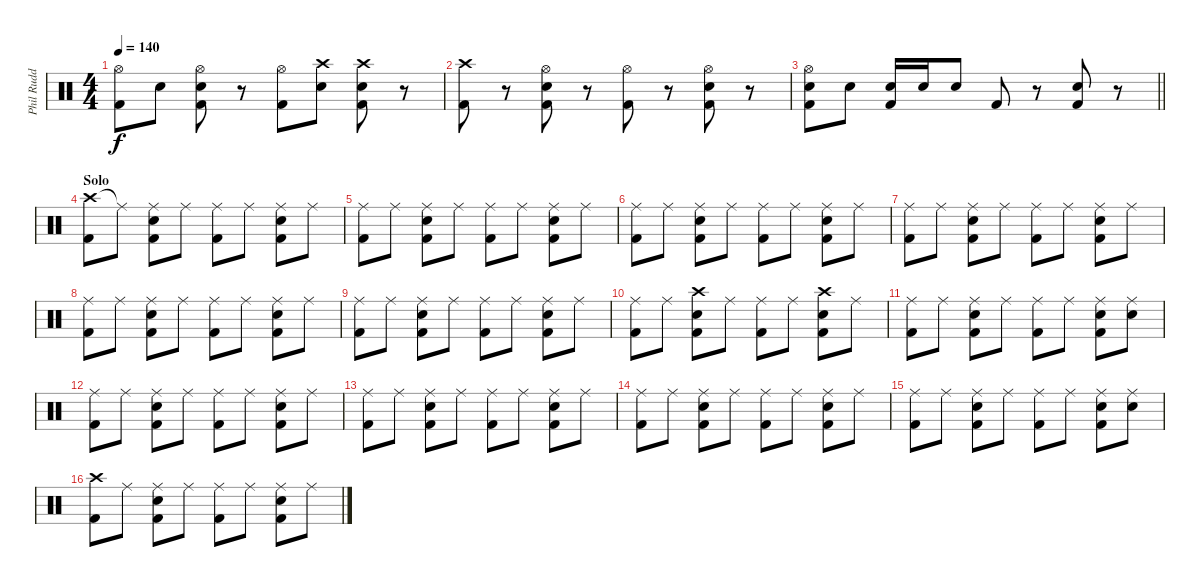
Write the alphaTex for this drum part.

\track ("Phil Rudd" "Phil Rudd") {instrument percussion}
\staff {score}
\articulation defaults
\ts (4 4)
\tempo 140
\clef neutral
\ks c
("Hi-Hat (open)" "Kick (hit) 2").8{dy f} "Electric Snare (hit)".8 ("Hi-Hat (open)" "Electric Snare (hit)" "Kick (hit) 2").8 r.8 ("Hi-Hat (open)" "Kick (hit) 2").8 ("Crash high (hit)" "Electric Snare (hit)").8 ("Crash high (hit)" "Electric Snare (hit)" "Kick (hit) 2").8 r.8 |
("Crash high (hit)" "Kick (hit) 2").8 r.8 ("Hi-Hat (open)" "Electric Snare (hit)" "Kick (hit) 2").8 r.8 ("Hi-Hat (open)" "Kick (hit) 2").8 r.8 ("Hi-Hat (open)" "Electric Snare (hit)" "Kick (hit) 2").8 r.8 |
\barLineRight lightlight
("Hi-Hat (open)" "Electric Snare (hit)" "Kick (hit) 2").8 "Electric Snare (hit)".8 ("Electric Snare (hit)" "Kick (hit) 2").16 "Electric Snare (hit)".16 "Electric Snare (hit)".8 "Kick (hit) 2".8 r.8 ("Electric Snare (hit)" "Kick (hit) 2").8 r.8 |
\section ("" "Solo")
("Crash high (hit)" "Kick (hit) 2").8 "Ride (middle)"{t}.8 ("Ride (middle)" "Electric Snare (hit)" "Kick (hit) 2").8 "Ride (middle)".8 ("Ride (middle)" "Kick (hit) 2").8 "Ride (middle)".8 ("Ride (middle)" "Electric Snare (hit)" "Kick (hit) 2").8 "Ride (middle)".8 |
("Ride (middle)" "Kick (hit) 2").8 "Ride (middle)".8 ("Ride (middle)" "Electric Snare (hit)" "Kick (hit) 2").8 "Ride (middle)".8 ("Ride (middle)" "Kick (hit) 2").8 "Ride (middle)".8 ("Ride (middle)" "Electric Snare (hit)" "Kick (hit) 2").8 "Ride (middle)".8 |
("Ride (middle)" "Kick (hit) 2").8 "Ride (middle)".8 ("Ride (middle)" "Electric Snare (hit)" "Kick (hit) 2").8 "Ride (middle)".8 ("Ride (middle)" "Kick (hit) 2").8 "Ride (middle)".8 ("Ride (middle)" "Electric Snare (hit)" "Kick (hit) 2").8 "Ride (middle)".8 |
("Ride (middle)" "Kick (hit) 2").8 "Ride (middle)".8 ("Ride (middle)" "Electric Snare (hit)" "Kick (hit) 2").8 "Ride (middle)".8 ("Ride (middle)" "Kick (hit) 2").8 "Ride (middle)".8 ("Ride (middle)" "Electric Snare (hit)" "Kick (hit) 2").8 "Ride (middle)".8 |
("Ride (middle)" "Kick (hit) 2").8 "Ride (middle)".8 ("Ride (middle)" "Electric Snare (hit)" "Kick (hit) 2").8 "Ride (middle)".8 ("Ride (middle)" "Kick (hit) 2").8 "Ride (middle)".8 ("Ride (middle)" "Electric Snare (hit)" "Kick (hit) 2").8 "Ride (middle)".8 |
("Ride (middle)" "Kick (hit) 2").8 "Ride (middle)".8 ("Ride (middle)" "Electric Snare (hit)" "Kick (hit) 2").8 "Ride (middle)".8 ("Ride (middle)" "Kick (hit) 2").8 "Ride (middle)".8 ("Ride (middle)" "Electric Snare (hit)" "Kick (hit) 2").8 "Ride (middle)".8 |
("Ride (middle)" "Kick (hit) 2").8 "Ride (middle)".8 ("Crash high (hit)" "Electric Snare (hit)" "Kick (hit) 2").8 "Ride (middle)".8 ("Ride (middle)" "Kick (hit) 2").8 "Ride (middle)".8 ("Crash high (hit)" "Electric Snare (hit)" "Kick (hit) 2").8 "Ride (middle)".8 |
("Ride (middle)" "Kick (hit) 2").8 "Ride (middle)".8 ("Ride (middle)" "Electric Snare (hit)" "Kick (hit) 2").8 "Ride (middle)".8 ("Ride (middle)" "Kick (hit) 2").8 "Ride (middle)".8 ("Ride (middle)" "Electric Snare (hit)" "Kick (hit) 2").8 ("Ride (middle)" "Electric Snare (hit)").8 |
("Ride (middle)" "Kick (hit) 2").8 "Ride (middle)".8 ("Ride (middle)" "Electric Snare (hit)" "Kick (hit) 2").8 "Ride (middle)".8 ("Ride (middle)" "Kick (hit) 2").8 "Ride (middle)".8 ("Ride (middle)" "Electric Snare (hit)" "Kick (hit) 2").8 "Ride (middle)".8 |
("Ride (middle)" "Kick (hit) 2").8 "Ride (middle)".8 ("Ride (middle)" "Electric Snare (hit)" "Kick (hit) 2").8 "Ride (middle)".8 ("Ride (middle)" "Kick (hit) 2").8 "Ride (middle)".8 ("Ride (middle)" "Electric Snare (hit)" "Kick (hit) 2").8 "Ride (middle)".8 |
("Ride (middle)" "Kick (hit) 2").8 "Ride (middle)".8 ("Ride (middle)" "Electric Snare (hit)" "Kick (hit) 2").8 "Ride (middle)".8 ("Ride (middle)" "Kick (hit) 2").8 "Ride (middle)".8 ("Ride (middle)" "Electric Snare (hit)" "Kick (hit) 2").8 "Ride (middle)".8 |
("Ride (middle)" "Kick (hit) 2").8 "Ride (middle)".8 ("Ride (middle)" "Electric Snare (hit)" "Kick (hit) 2").8 "Ride (middle)".8 ("Ride (middle)" "Kick (hit) 2").8 "Ride (middle)".8 ("Ride (middle)" "Electric Snare (hit)" "Kick (hit) 2").8 ("Ride (middle)" "Electric Snare (hit)").8 |
("Crash high (hit)" "Kick (hit) 2").8 "Ride (middle)".8 ("Ride (middle)" "Electric Snare (hit)" "Kick (hit) 2").8 "Ride (middle)".8 ("Ride (middle)" "Kick (hit) 2").8 "Ride (middle)".8 ("Ride (middle)" "Electric Snare (hit)" "Kick (hit) 2").8 "Ride (middle)".8
